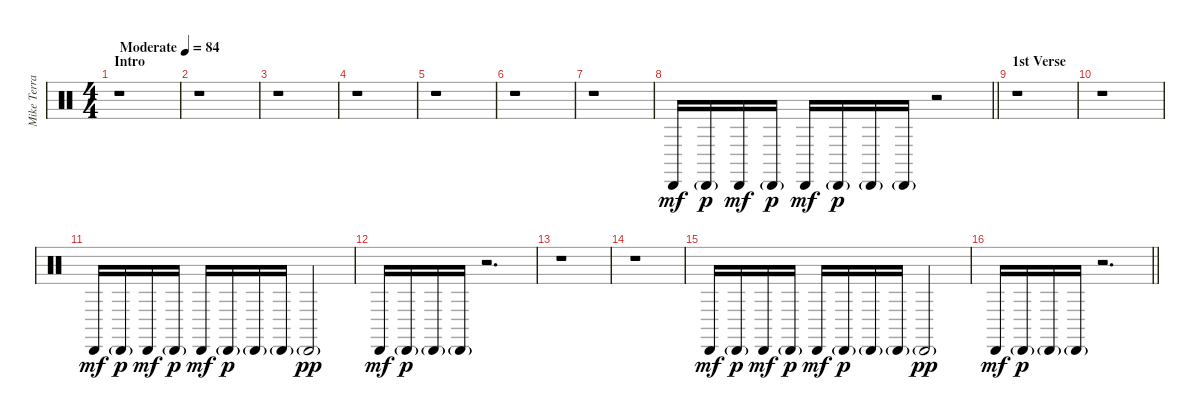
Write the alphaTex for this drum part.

\track ("Mike Terrana" "Mike Terra") {instrument percussion}
\staff {score}
\articulation defaults
\ts (4 4)
\section ("" "Intro")
\tempo (84 "Moderate")
\clef neutral
\ks c
r.1{dy mf} |
r.1 |
r.1 |
r.1 |
r.1 |
r.1 |
r.1 |
\barLineRight lightlight "Cabasa (hit)".16 "Cabasa (hit)"{g}.16{dy p} "Cabasa (hit)".16{dy mf} "Cabasa (hit)"{g}.16{dy p} "Cabasa (hit)".16{dy mf} "Cabasa (hit)"{g}.16{dy p} "Cabasa (hit)"{g}.16 "Cabasa (hit)"{g}.16
r.2 |
\section ("" "1st Verse")
r.1 |
r.1 |
"Cabasa (hit)".16{dy mf} "Cabasa (hit)"{g}.16{dy p} "Cabasa (hit)".16{dy mf} "Cabasa (hit)"{g}.16{dy p} "Cabasa (hit)".16{dy mf} "Cabasa (hit)"{g}.16{dy p} "Cabasa (hit)"{g}.16 "Cabasa (hit)"{g}.16 "Cabasa (hit)"{g}.2{dy pp} |
"Cabasa (hit)".16{dy mf} "Cabasa (hit)"{g}.16{dy p} "Cabasa (hit)"{g}.16 "Cabasa (hit)"{g}.16 r.2{d} |
r.1 |
r.1 |
"Cabasa (hit)".16{dy mf} "Cabasa (hit)"{g}.16{dy p} "Cabasa (hit)".16{dy mf} "Cabasa (hit)"{g}.16{dy p} "Cabasa (hit)".16{dy mf} "Cabasa (hit)"{g}.16{dy p} "Cabasa (hit)"{g}.16 "Cabasa (hit)"{g}.16 "Cabasa (hit)"{g}.2{dy pp} |
\barLineRight lightlight "Cabasa (hit)".16{dy mf} "Cabasa (hit)"{g}.16{dy p} "Cabasa (hit)"{g}.16 "Cabasa (hit)"{g}.16
r.2{d}
